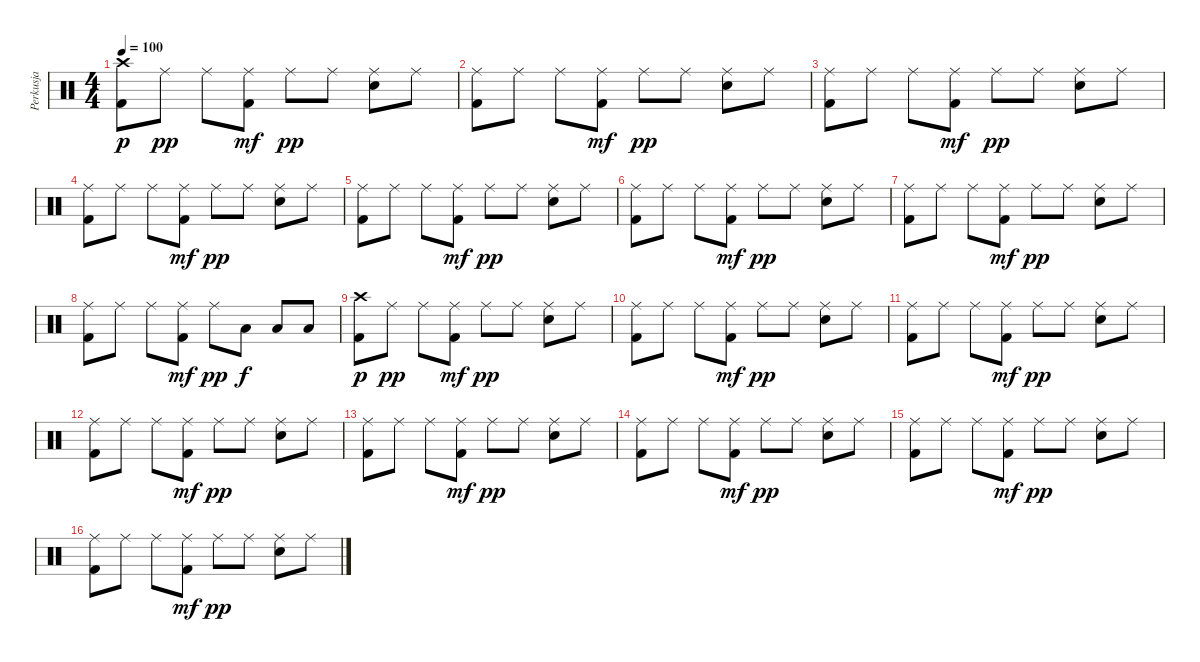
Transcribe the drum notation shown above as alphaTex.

\track ("Perkusja" "Perkusja") {instrument percussion}
\staff {score}
\articulation defaults
\ts (4 4)
\tempo 100
\clef neutral
\ks c
("Kick (hit) 2" "Crash high (hit)").8{dy p} "Ride (middle)".8{dy pp} "Ride (middle)".8 ("Ride (middle)" "Kick (hit) 2").8{dy mf} "Ride (middle)".8{dy pp} "Ride (middle)".8 ("Ride (middle)" "Electric Snare (hit)").8 "Ride (middle)".8 |
("Kick (hit) 2" "Ride (middle)").8 "Ride (middle)".8 "Ride (middle)".8 ("Ride (middle)" "Kick (hit) 2").8{dy mf} "Ride (middle)".8{dy pp} "Ride (middle)".8 ("Ride (middle)" "Electric Snare (hit)").8 "Ride (middle)".8 |
("Kick (hit) 2" "Ride (middle)").8 "Ride (middle)".8 "Ride (middle)".8 ("Ride (middle)" "Kick (hit) 2").8{dy mf} "Ride (middle)".8{dy pp} "Ride (middle)".8 ("Ride (middle)" "Electric Snare (hit)").8 "Ride (middle)".8 |
("Kick (hit) 2" "Ride (middle)").8 "Ride (middle)".8 "Ride (middle)".8 ("Ride (middle)" "Kick (hit) 2").8{dy mf} "Ride (middle)".8{dy pp} "Ride (middle)".8 ("Ride (middle)" "Electric Snare (hit)").8 "Ride (middle)".8 |
("Kick (hit) 2" "Ride (middle)").8 "Ride (middle)".8 "Ride (middle)".8 ("Ride (middle)" "Kick (hit) 2").8{dy mf} "Ride (middle)".8{dy pp} "Ride (middle)".8 ("Ride (middle)" "Electric Snare (hit)").8 "Ride (middle)".8 |
("Kick (hit) 2" "Ride (middle)").8 "Ride (middle)".8 "Ride (middle)".8 ("Ride (middle)" "Kick (hit) 2").8{dy mf} "Ride (middle)".8{dy pp} "Ride (middle)".8 ("Ride (middle)" "Electric Snare (hit)").8 "Ride (middle)".8 |
("Kick (hit) 2" "Ride (middle)").8 "Ride (middle)".8 "Ride (middle)".8 ("Ride (middle)" "Kick (hit) 2").8{dy mf} "Ride (middle)".8{dy pp} "Ride (middle)".8 ("Ride (middle)" "Electric Snare (hit)").8 "Ride (middle)".8 |
("Kick (hit) 2" "Ride (middle)").8 "Ride (middle)".8 "Ride (middle)".8 ("Ride (middle)" "Kick (hit) 2").8{dy mf} "Ride (middle)".8{dy pp} "Low Tom (hit)".8{dy f} "Low Tom (hit)".8 "Low Floor Tom (hit)".8 |
("Kick (hit) 2" "Crash high (hit)").8{dy p} "Ride (middle)".8{dy pp} "Ride (middle)".8 ("Ride (middle)" "Kick (hit) 2").8{dy mf} "Ride (middle)".8{dy pp} "Ride (middle)".8 ("Ride (middle)" "Electric Snare (hit)").8 "Ride (middle)".8 |
("Kick (hit) 2" "Ride (middle)").8 "Ride (middle)".8 "Ride (middle)".8 ("Ride (middle)" "Kick (hit) 2").8{dy mf} "Ride (middle)".8{dy pp} "Ride (middle)".8 ("Ride (middle)" "Electric Snare (hit)").8 "Ride (middle)".8 |
("Kick (hit) 2" "Ride (middle)").8 "Ride (middle)".8 "Ride (middle)".8 ("Ride (middle)" "Kick (hit) 2").8{dy mf} "Ride (middle)".8{dy pp} "Ride (middle)".8 ("Ride (middle)" "Electric Snare (hit)").8 "Ride (middle)".8 |
("Kick (hit) 2" "Ride (middle)").8 "Ride (middle)".8 "Ride (middle)".8 ("Ride (middle)" "Kick (hit) 2").8{dy mf} "Ride (middle)".8{dy pp} "Ride (middle)".8 ("Ride (middle)" "Electric Snare (hit)").8 "Ride (middle)".8 |
("Kick (hit) 2" "Ride (middle)").8 "Ride (middle)".8 "Ride (middle)".8 ("Ride (middle)" "Kick (hit) 2").8{dy mf} "Ride (middle)".8{dy pp} "Ride (middle)".8 ("Ride (middle)" "Electric Snare (hit)").8 "Ride (middle)".8 |
("Kick (hit) 2" "Ride (middle)").8 "Ride (middle)".8 "Ride (middle)".8 ("Ride (middle)" "Kick (hit) 2").8{dy mf} "Ride (middle)".8{dy pp} "Ride (middle)".8 ("Ride (middle)" "Electric Snare (hit)").8 "Ride (middle)".8 |
("Kick (hit) 2" "Ride (middle)").8 "Ride (middle)".8 "Ride (middle)".8 ("Ride (middle)" "Kick (hit) 2").8{dy mf} "Ride (middle)".8{dy pp} "Ride (middle)".8 ("Ride (middle)" "Electric Snare (hit)").8 "Ride (middle)".8 |
("Kick (hit) 2" "Ride (middle)").8 "Ride (middle)".8 "Ride (middle)".8 ("Ride (middle)" "Kick (hit) 2").8{dy mf} "Ride (middle)".8{dy pp} "Ride (middle)".8 ("Ride (middle)" "Electric Snare (hit)").8 "Ride (middle)".8
